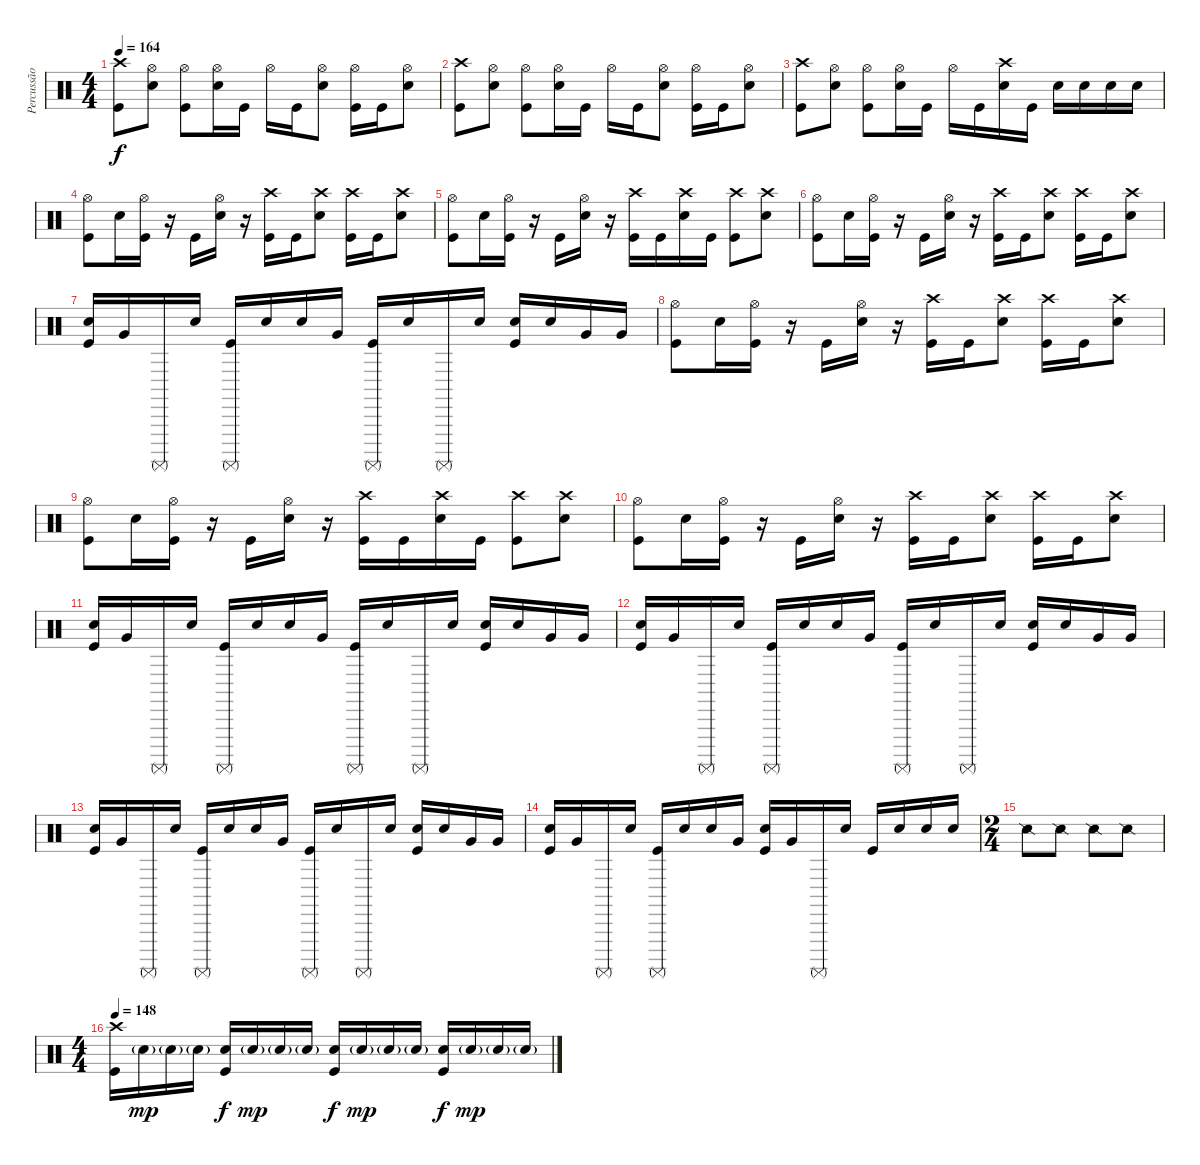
\track ("Percussão" "Percussão") {instrument percussion}
\staff {score}
\articulation defaults
\ts (4 4)
\tempo 164
\clef neutral
\ks c
("Crash high (hit)" "Kick (hit)").8{dy f} ("Hi-Hat (open)" "Electric Snare (hit)").8 ("Hi-Hat (open)" "Kick (hit)").8 ("Hi-Hat (open)" "Electric Snare (hit)").16 "Kick (hit)".16 "Hi-Hat (open)".16 "Kick (hit)".16 ("Hi-Hat (open)" "Electric Snare (hit)").8 ("Hi-Hat (open)" "Kick (hit)").16 "Kick (hit)".16 ("Hi-Hat (open)" "Electric Snare (hit)").8 |
("Crash high (hit)" "Kick (hit)").8 ("Hi-Hat (open)" "Electric Snare (hit)").8 ("Hi-Hat (open)" "Kick (hit)").8 ("Hi-Hat (open)" "Electric Snare (hit)").16 "Kick (hit)".16 "Hi-Hat (open)".16 "Kick (hit)".16 ("Hi-Hat (open)" "Electric Snare (hit)").8 ("Hi-Hat (open)" "Kick (hit)").16 "Kick (hit)".16 ("Hi-Hat (open)" "Electric Snare (hit)").8 |
("Crash high (hit)" "Kick (hit)").8 ("Hi-Hat (open)" "Electric Snare (hit)").8 ("Hi-Hat (open)" "Kick (hit)").8 ("Hi-Hat (open)" "Electric Snare (hit)").16 "Kick (hit)".16 "Hi-Hat (open)".16 "Kick (hit)".16 ("Crash high (hit)" "Electric Snare (hit)").16 "Kick (hit)".16 "Electric Snare (hit)".16 "Electric Snare (hit)".16 "Electric Snare (hit)".16 "Electric Snare (hit)".16 |
("Hi-Hat (open)" "Kick (hit)").8 "Electric Snare (hit)".16 ("Hi-Hat (open)" "Kick (hit)").16 r.16 "Kick (hit)".16 ("Hi-Hat (open)" "Electric Snare (hit)").16 r.16 ("Crash high (hit)" "Kick (hit)").16 "Kick (hit)".16 ("Crash high (hit)" "Electric Snare (hit)").8 ("Crash high (hit)" "Kick (hit)").16 "Kick (hit)".16 ("Crash high (hit)" "Electric Snare (hit)").8 |
("Hi-Hat (open)" "Kick (hit)").8 "Electric Snare (hit)".16 ("Hi-Hat (open)" "Kick (hit)").16 r.16 "Kick (hit)".16 ("Hi-Hat (open)" "Electric Snare (hit)").16 r.16 ("Crash high (hit)" "Kick (hit)").16 "Kick (hit)".16 ("Crash high (hit)" "Electric Snare (hit)").16 "Kick (hit)".16 ("Crash high (hit)" "Kick (hit)").8 ("Crash high (hit)" "Electric Snare (hit)").8 |
("Hi-Hat (open)" "Kick (hit)").8 "Electric Snare (hit)".16 ("Hi-Hat (open)" "Kick (hit)").16 r.16 "Kick (hit)".16 ("Hi-Hat (open)" "Electric Snare (hit)").16 r.16 ("Crash high (hit)" "Kick (hit)").16 "Kick (hit)".16 ("Crash high (hit)" "Electric Snare (hit)").8 ("Crash high (hit)" "Kick (hit)").16 "Kick (hit)".16 ("Crash high (hit)" "Electric Snare (hit)").8 |
("Electric Snare (hit)" "Kick (hit)").16 "Very Low Tom (hit)".16 "Surdo (mute)".16 "Electric Snare (hit)".16 ("Surdo (mute)" "Kick (hit)").16 "Electric Snare (hit)".16 "Electric Snare (hit)".16 "Very Low Tom (hit)".16 ("Surdo (mute)" "Kick (hit)").16 "Electric Snare (hit)".16 "Surdo (mute)".16 "Electric Snare (hit)".16 ("Electric Snare (hit)" "Kick (hit)").16 "Electric Snare (hit)".16 "Very Low Tom (hit)".16 "Very Low Tom (hit)".16 |
("Hi-Hat (open)" "Kick (hit)").8 "Electric Snare (hit)".16 ("Hi-Hat (open)" "Kick (hit)").16 r.16 "Kick (hit)".16 ("Hi-Hat (open)" "Electric Snare (hit)").16 r.16 ("Crash high (hit)" "Kick (hit)").16 "Kick (hit)".16 ("Crash high (hit)" "Electric Snare (hit)").8 ("Crash high (hit)" "Kick (hit)").16 "Kick (hit)".16 ("Crash high (hit)" "Electric Snare (hit)").8 |
("Hi-Hat (open)" "Kick (hit)").8 "Electric Snare (hit)".16 ("Hi-Hat (open)" "Kick (hit)").16 r.16 "Kick (hit)".16 ("Hi-Hat (open)" "Electric Snare (hit)").16 r.16 ("Crash high (hit)" "Kick (hit)").16 "Kick (hit)".16 ("Crash high (hit)" "Electric Snare (hit)").16 "Kick (hit)".16 ("Crash high (hit)" "Kick (hit)").8 ("Crash high (hit)" "Electric Snare (hit)").8 |
("Hi-Hat (open)" "Kick (hit)").8 "Electric Snare (hit)".16 ("Hi-Hat (open)" "Kick (hit)").16 r.16 "Kick (hit)".16 ("Hi-Hat (open)" "Electric Snare (hit)").16 r.16 ("Crash high (hit)" "Kick (hit)").16 "Kick (hit)".16 ("Crash high (hit)" "Electric Snare (hit)").8 ("Crash high (hit)" "Kick (hit)").16 "Kick (hit)".16 ("Crash high (hit)" "Electric Snare (hit)").8 |
("Electric Snare (hit)" "Kick (hit)").16 "Very Low Tom (hit)".16 "Surdo (mute)".16 "Electric Snare (hit)".16 ("Surdo (mute)" "Kick (hit)").16 "Electric Snare (hit)".16 "Electric Snare (hit)".16 "Very Low Tom (hit)".16 ("Surdo (mute)" "Kick (hit)").16 "Electric Snare (hit)".16 "Surdo (mute)".16 "Electric Snare (hit)".16 ("Electric Snare (hit)" "Kick (hit)").16 "Electric Snare (hit)".16 "Very Low Tom (hit)".16 "Very Low Tom (hit)".16 |
("Electric Snare (hit)" "Kick (hit)").16 "Very Low Tom (hit)".16 "Surdo (mute)".16 "Electric Snare (hit)".16 ("Surdo (mute)" "Kick (hit)").16 "Electric Snare (hit)".16 "Electric Snare (hit)".16 "Very Low Tom (hit)".16 ("Surdo (mute)" "Kick (hit)").16 "Electric Snare (hit)".16 "Surdo (mute)".16 "Electric Snare (hit)".16 ("Electric Snare (hit)" "Kick (hit)").16 "Electric Snare (hit)".16 "Very Low Tom (hit)".16 "Very Low Tom (hit)".16 |
("Electric Snare (hit)" "Kick (hit)").16 "Very Low Tom (hit)".16 "Surdo (mute)".16 "Electric Snare (hit)".16 ("Surdo (mute)" "Kick (hit)").16 "Electric Snare (hit)".16 "Electric Snare (hit)".16 "Very Low Tom (hit)".16 ("Surdo (mute)" "Kick (hit)").16 "Electric Snare (hit)".16 "Surdo (mute)".16 "Electric Snare (hit)".16 ("Electric Snare (hit)" "Kick (hit)").16 "Electric Snare (hit)".16 "Very Low Tom (hit)".16 "Very Low Tom (hit)".16 |
("Electric Snare (hit)" "Kick (hit)").16 "Very Low Tom (hit)".16 "Surdo (mute)".16 "Electric Snare (hit)".16 ("Surdo (mute)" "Kick (hit)").16 "Electric Snare (hit)".16 "Electric Snare (hit)".16 "Very Low Tom (hit)".16 ("Electric Snare (hit)" "Kick (hit)").16 "Very Low Tom (hit)".16 "Surdo (mute)".16 "Electric Snare (hit)".16 "Kick (hit)".16 "Electric Snare (hit)".16 "Electric Snare (hit)".16 "Electric Snare (hit)".16 |
\ts (2 4)
"Snare (side stick) 2".8 "Snare (side stick) 2".8 "Snare (side stick) 2".8 "Snare (side stick) 2".8 |
\ts (4 4)
\tempo 148
("Crash high (hit)" "Kick (hit)").16 "Snare (hit) 2"{g}.16{dy mp} "Snare (hit) 2"{g}.16 "Snare (hit) 2"{g}.16 ("Snare (hit) 2" "Kick (hit)").16{dy f} "Snare (hit) 2"{g}.16{dy mp} "Snare (hit) 2"{g}.16 "Snare (hit) 2"{g}.16 ("Snare (hit) 2" "Kick (hit)").16{dy f} "Snare (hit) 2"{g}.16{dy mp} "Snare (hit) 2"{g}.16 "Snare (hit) 2"{g}.16 ("Snare (hit) 2" "Kick (hit)").16{dy f} "Snare (hit) 2"{g}.16{dy mp} "Snare (hit) 2"{g}.16 "Snare (hit) 2"{g}.16
